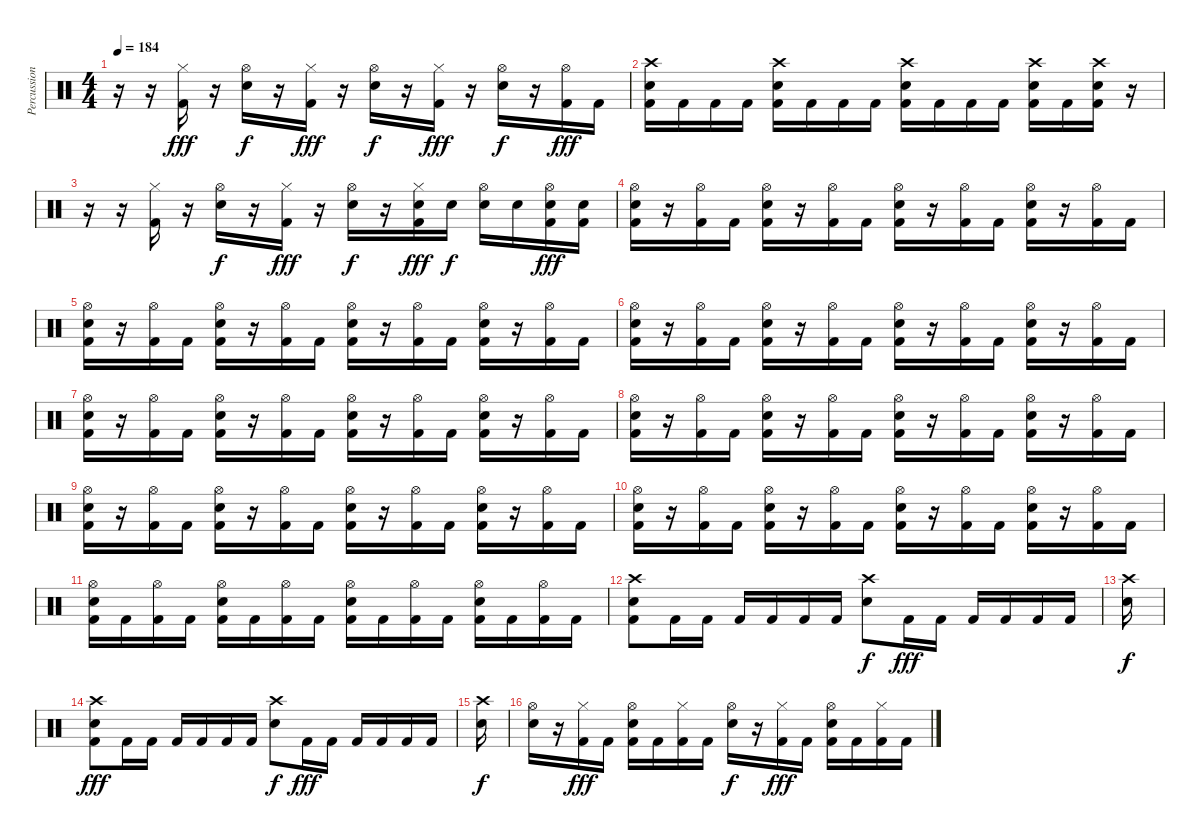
\track ("Percussion" "Percussion") {instrument percussion}
\staff {score}
\articulation defaults
\ts (4 4)
\tempo 184
\clef neutral
\ks c
r.16{dy fff} r.16 ("Hi-Hat (closed)" "Kick (hit) 2").16 r.16 ("Hi-Hat (open)" "Snare (hit) 2").16{dy f} r.16 ("Hi-Hat (closed)" "Kick (hit) 2").16{dy fff} r.16 ("Hi-Hat (open)" "Snare (hit) 2").16{dy f} r.16 ("Hi-Hat (closed)" "Kick (hit) 2").16{dy fff} r.16 ("Hi-Hat (open)" "Snare (hit) 2").16{dy f} r.16 ("Hi-Hat (open)" "Kick (hit) 2").16{dy fff} "Kick (hit) 2".16 |
("Crash high (hit)" "Snare (hit) 2" "Kick (hit) 2").16 "Kick (hit) 2".16 "Kick (hit) 2".16 "Kick (hit) 2".16 ("Crash high (hit)" "Snare (hit) 2" "Kick (hit) 2").16 "Kick (hit) 2".16 "Kick (hit) 2".16 "Kick (hit) 2".16 ("Crash high (hit)" "Snare (hit) 2" "Kick (hit) 2").16 "Kick (hit) 2".16 "Kick (hit) 2".16 "Kick (hit) 2".16 ("Crash high (hit)" "Snare (hit) 2" "Kick (hit) 2").16 "Kick (hit) 2".16 ("Crash high (hit)" "Snare (hit) 2" "Kick (hit) 2").16 r.16 |
r.16 r.16 ("Hi-Hat (closed)" "Kick (hit) 2").16 r.16 ("Hi-Hat (open)" "Snare (hit) 2").16{dy f} r.16 ("Hi-Hat (closed)" "Kick (hit) 2").16{dy fff} r.16 ("Hi-Hat (open)" "Snare (hit) 2").16{dy f} r.16 ("Hi-Hat (closed)" "Snare (hit) 2" "Kick (hit) 2").16{dy fff} "Snare (hit) 2".16{dy f} ("Hi-Hat (open)" "Snare (hit) 2").16 "Snare (hit) 2".16 ("Hi-Hat (open)" "Snare (hit) 2" "Kick (hit) 2").16{dy fff} ("Snare (hit) 2" "Kick (hit) 2").16 |
("Hi-Hat (open)" "Snare (hit) 2" "Kick (hit) 2").16 r.16 ("Hi-Hat (open)" "Kick (hit) 2").16 "Kick (hit) 2".16 ("Hi-Hat (open)" "Snare (hit) 2" "Kick (hit) 2").16 r.16 ("Hi-Hat (open)" "Kick (hit) 2").16 "Kick (hit) 2".16 ("Hi-Hat (open)" "Snare (hit) 2" "Kick (hit) 2").16 r.16 ("Hi-Hat (open)" "Kick (hit) 2").16 "Kick (hit) 2".16 ("Hi-Hat (open)" "Snare (hit) 2" "Kick (hit) 2").16 r.16 ("Hi-Hat (open)" "Kick (hit) 2").16 "Kick (hit) 2".16 |
("Hi-Hat (open)" "Snare (hit) 2" "Kick (hit) 2").16 r.16 ("Hi-Hat (open)" "Kick (hit) 2").16 "Kick (hit) 2".16 ("Hi-Hat (open)" "Snare (hit) 2" "Kick (hit) 2").16 r.16 ("Hi-Hat (open)" "Kick (hit) 2").16 "Kick (hit) 2".16 ("Hi-Hat (open)" "Snare (hit) 2" "Kick (hit) 2").16 r.16 ("Hi-Hat (open)" "Kick (hit) 2").16 "Kick (hit) 2".16 ("Hi-Hat (open)" "Snare (hit) 2" "Kick (hit) 2").16 r.16 ("Hi-Hat (open)" "Kick (hit) 2").16 "Kick (hit) 2".16 |
("Hi-Hat (open)" "Snare (hit) 2" "Kick (hit) 2").16 r.16 ("Hi-Hat (open)" "Kick (hit) 2").16 "Kick (hit) 2".16 ("Hi-Hat (open)" "Snare (hit) 2" "Kick (hit) 2").16 r.16 ("Hi-Hat (open)" "Kick (hit) 2").16 "Kick (hit) 2".16 ("Hi-Hat (open)" "Snare (hit) 2" "Kick (hit) 2").16 r.16 ("Hi-Hat (open)" "Kick (hit) 2").16 "Kick (hit) 2".16 ("Hi-Hat (open)" "Snare (hit) 2" "Kick (hit) 2").16 r.16 ("Hi-Hat (open)" "Kick (hit) 2").16 "Kick (hit) 2".16 |
("Hi-Hat (open)" "Snare (hit) 2" "Kick (hit) 2").16 r.16 ("Hi-Hat (open)" "Kick (hit) 2").16 "Kick (hit) 2".16 ("Hi-Hat (open)" "Snare (hit) 2" "Kick (hit) 2").16 r.16 ("Hi-Hat (open)" "Kick (hit) 2").16 "Kick (hit) 2".16 ("Hi-Hat (open)" "Snare (hit) 2" "Kick (hit) 2").16 r.16 ("Hi-Hat (open)" "Kick (hit) 2").16 "Kick (hit) 2".16 ("Hi-Hat (open)" "Snare (hit) 2" "Kick (hit) 2").16 r.16 ("Hi-Hat (open)" "Kick (hit) 2").16 "Kick (hit) 2".16 |
("Hi-Hat (open)" "Snare (hit) 2" "Kick (hit) 2").16 r.16 ("Hi-Hat (open)" "Kick (hit) 2").16 "Kick (hit) 2".16 ("Hi-Hat (open)" "Snare (hit) 2" "Kick (hit) 2").16 r.16 ("Hi-Hat (open)" "Kick (hit) 2").16 "Kick (hit) 2".16 ("Hi-Hat (open)" "Snare (hit) 2" "Kick (hit) 2").16 r.16 ("Hi-Hat (open)" "Kick (hit) 2").16 "Kick (hit) 2".16 ("Hi-Hat (open)" "Snare (hit) 2" "Kick (hit) 2").16 r.16 ("Hi-Hat (open)" "Kick (hit) 2").16 "Kick (hit) 2".16 |
("Hi-Hat (open)" "Snare (hit) 2" "Kick (hit) 2").16 r.16 ("Hi-Hat (open)" "Kick (hit) 2").16 "Kick (hit) 2".16 ("Hi-Hat (open)" "Snare (hit) 2" "Kick (hit) 2").16 r.16 ("Hi-Hat (open)" "Kick (hit) 2").16 "Kick (hit) 2".16 ("Hi-Hat (open)" "Snare (hit) 2" "Kick (hit) 2").16 r.16 ("Hi-Hat (open)" "Kick (hit) 2").16 "Kick (hit) 2".16 ("Hi-Hat (open)" "Snare (hit) 2" "Kick (hit) 2").16 r.16 ("Hi-Hat (open)" "Kick (hit) 2").16 "Kick (hit) 2".16 |
("Hi-Hat (open)" "Snare (hit) 2" "Kick (hit) 2").16 r.16 ("Hi-Hat (open)" "Kick (hit) 2").16 "Kick (hit) 2".16 ("Hi-Hat (open)" "Snare (hit) 2" "Kick (hit) 2").16 r.16 ("Hi-Hat (open)" "Kick (hit) 2").16 "Kick (hit) 2".16 ("Hi-Hat (open)" "Snare (hit) 2" "Kick (hit) 2").16 r.16 ("Hi-Hat (open)" "Kick (hit) 2").16 "Kick (hit) 2".16 ("Hi-Hat (open)" "Snare (hit) 2" "Kick (hit) 2").16 r.16 ("Hi-Hat (open)" "Kick (hit) 2").16 "Kick (hit) 2".16 |
("Hi-Hat (open)" "Snare (hit) 2" "Kick (hit) 2").16 "Kick (hit) 2".16 ("Hi-Hat (open)" "Kick (hit) 2").16 "Kick (hit) 2".16 ("Hi-Hat (open)" "Snare (hit) 2" "Kick (hit) 2").16 "Kick (hit) 2".16 ("Hi-Hat (open)" "Kick (hit) 2").16 "Kick (hit) 2".16 ("Hi-Hat (open)" "Snare (hit) 2" "Kick (hit) 2").16 "Kick (hit) 2".16 ("Hi-Hat (open)" "Kick (hit) 2").16 "Kick (hit) 2".16 ("Hi-Hat (open)" "Snare (hit) 2" "Kick (hit) 2").16 "Kick (hit) 2".16 ("Hi-Hat (open)" "Kick (hit) 2").16 "Kick (hit) 2".16 |
("Crash high (hit)" "Snare (hit) 2" "Kick (hit) 2").8 "Kick (hit) 2".16 "Kick (hit) 2".16 "Kick (hit) 2".16 "Kick (hit) 2".16 "Kick (hit) 2".16 "Kick (hit) 2".16 ("Crash high (hit)" "Snare (hit) 2").8{dy f} "Kick (hit) 2".16{dy fff} "Kick (hit) 2".16 "Kick (hit) 2".16 "Kick (hit) 2".16 "Kick (hit) 2".16 "Kick (hit) 2".16 |
("Crash high (hit)" "Snare (hit) 2").16{dy f} |
("Crash high (hit)" "Snare (hit) 2" "Kick (hit) 2").8{dy fff} "Kick (hit) 2".16 "Kick (hit) 2".16 "Kick (hit) 2".16 "Kick (hit) 2".16 "Kick (hit) 2".16 "Kick (hit) 2".16 ("Crash high (hit)" "Snare (hit) 2").8{dy f} "Kick (hit) 2".16{dy fff} "Kick (hit) 2".16 "Kick (hit) 2".16 "Kick (hit) 2".16 "Kick (hit) 2".16 "Kick (hit) 2".16 |
("Crash high (hit)" "Snare (hit) 2").16{dy f} |
("Hi-Hat (open)" "Snare (hit) 2").16 r.16 ("Hi-Hat (closed)" "Kick (hit) 2").16{dy fff} "Kick (hit) 2".16 ("Hi-Hat (open)" "Snare (hit) 2" "Kick (hit) 2").16 "Kick (hit) 2".16 ("Hi-Hat (closed)" "Kick (hit) 2").16 "Kick (hit) 2".16 ("Hi-Hat (open)" "Snare (hit) 2").16{dy f} r.16 ("Hi-Hat (closed)" "Kick (hit) 2").16{dy fff} "Kick (hit) 2".16 ("Hi-Hat (open)" "Snare (hit) 2" "Kick (hit) 2").16 "Kick (hit) 2".16 ("Hi-Hat (closed)" "Kick (hit) 2").16 "Kick (hit) 2".16
